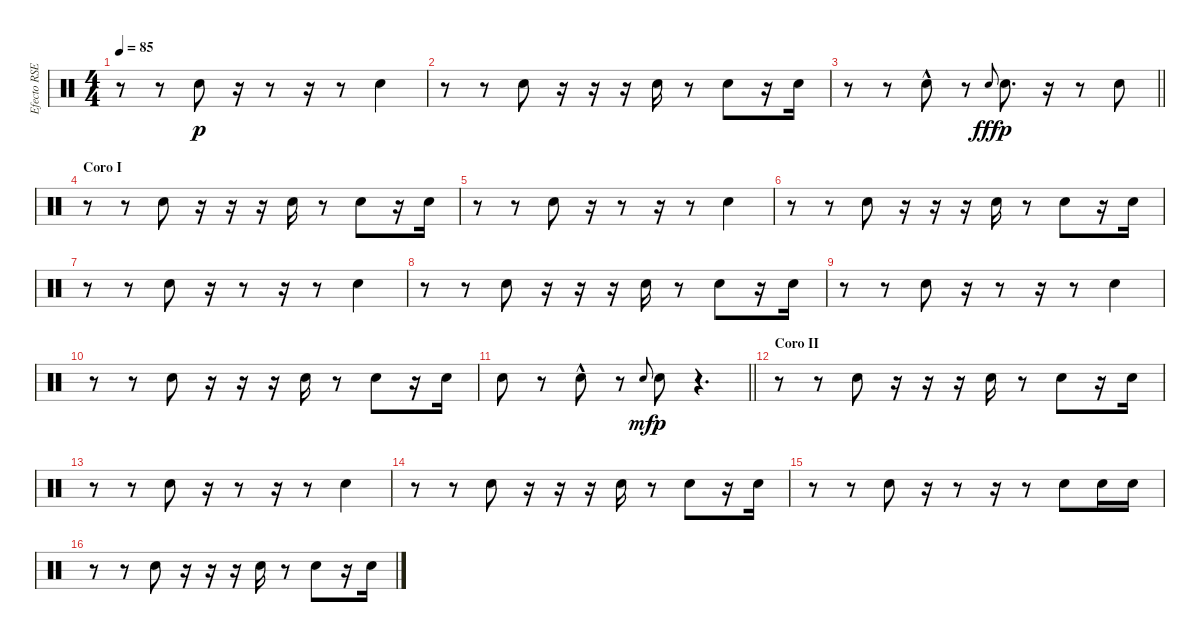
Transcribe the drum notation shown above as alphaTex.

\track ("Efecto RSE (GP5)" "Efecto RSE") {instrument percussion}
\staff {score}
\articulation defaults
\ts (4 4)
\tempo 85
\clef neutral
\ks c
r.8{dy p} r.8 "Electric Snare (hit)".8 r.16 r.8 r.16 r.8 "Electric Snare (hit)".4 |
r.8 r.8 "Electric Snare (hit)".8 r.16 r.16 r.16 "Electric Snare (hit)".16 r.8 "Electric Snare (hit)".8 r.16 "Electric Snare (hit)".16 |
\barLineRight lightlight
r.8 r.8 "Electric Snare (hit)"{hac}.8 r.8 "Electric Snare (hit)".8{gr onbeat dy fff} "Electric Snare (hit)".8{d dy p} r.16 r.8 "Electric Snare (hit)".8 |
\section ("" "Coro I")
r.8 r.8 "Electric Snare (hit)".8 r.16 r.16 r.16 "Electric Snare (hit)".16 r.8 "Electric Snare (hit)".8 r.16 "Electric Snare (hit)".16 |
r.8 r.8 "Electric Snare (hit)".8 r.16 r.8 r.16 r.8 "Electric Snare (hit)".4 |
r.8 r.8 "Electric Snare (hit)".8 r.16 r.16 r.16 "Electric Snare (hit)".16 r.8 "Electric Snare (hit)".8 r.16 "Electric Snare (hit)".16 |
r.8 r.8 "Electric Snare (hit)".8 r.16 r.8 r.16 r.8 "Electric Snare (hit)".4 |
r.8 r.8 "Electric Snare (hit)".8 r.16 r.16 r.16 "Electric Snare (hit)".16 r.8 "Electric Snare (hit)".8 r.16 "Electric Snare (hit)".16 |
r.8 r.8 "Electric Snare (hit)".8 r.16 r.8 r.16 r.8 "Electric Snare (hit)".4 |
r.8 r.8 "Electric Snare (hit)".8 r.16 r.16 r.16 "Electric Snare (hit)".16 r.8 "Electric Snare (hit)".8 r.16 "Electric Snare (hit)".16 |
\barLineRight lightlight "Electric Snare (hit)".8
r.8 "Electric Snare (hit)"{hac}.8 r.8 "Electric Snare (hit)".8{gr onbeat dy mf} "Electric Snare (hit)".8{dy p} r.4{d} |
\section ("" "Coro II")
r.8 r.8 "Electric Snare (hit)".8 r.16 r.16 r.16 "Electric Snare (hit)".16 r.8 "Electric Snare (hit)".8 r.16 "Electric Snare (hit)".16 |
r.8 r.8 "Electric Snare (hit)".8 r.16 r.8 r.16 r.8 "Electric Snare (hit)".4 |
r.8 r.8 "Electric Snare (hit)".8 r.16 r.16 r.16 "Electric Snare (hit)".16 r.8 "Electric Snare (hit)".8 r.16 "Electric Snare (hit)".16 |
r.8 r.8 "Electric Snare (hit)".8 r.16 r.8 r.16 r.8 "Electric Snare (hit)".8 "Electric Snare (hit)".16 "Electric Snare (hit)".16 |
r.8 r.8 "Electric Snare (hit)".8 r.16 r.16 r.16 "Electric Snare (hit)".16 r.8 "Electric Snare (hit)".8 r.16 "Electric Snare (hit)".16
